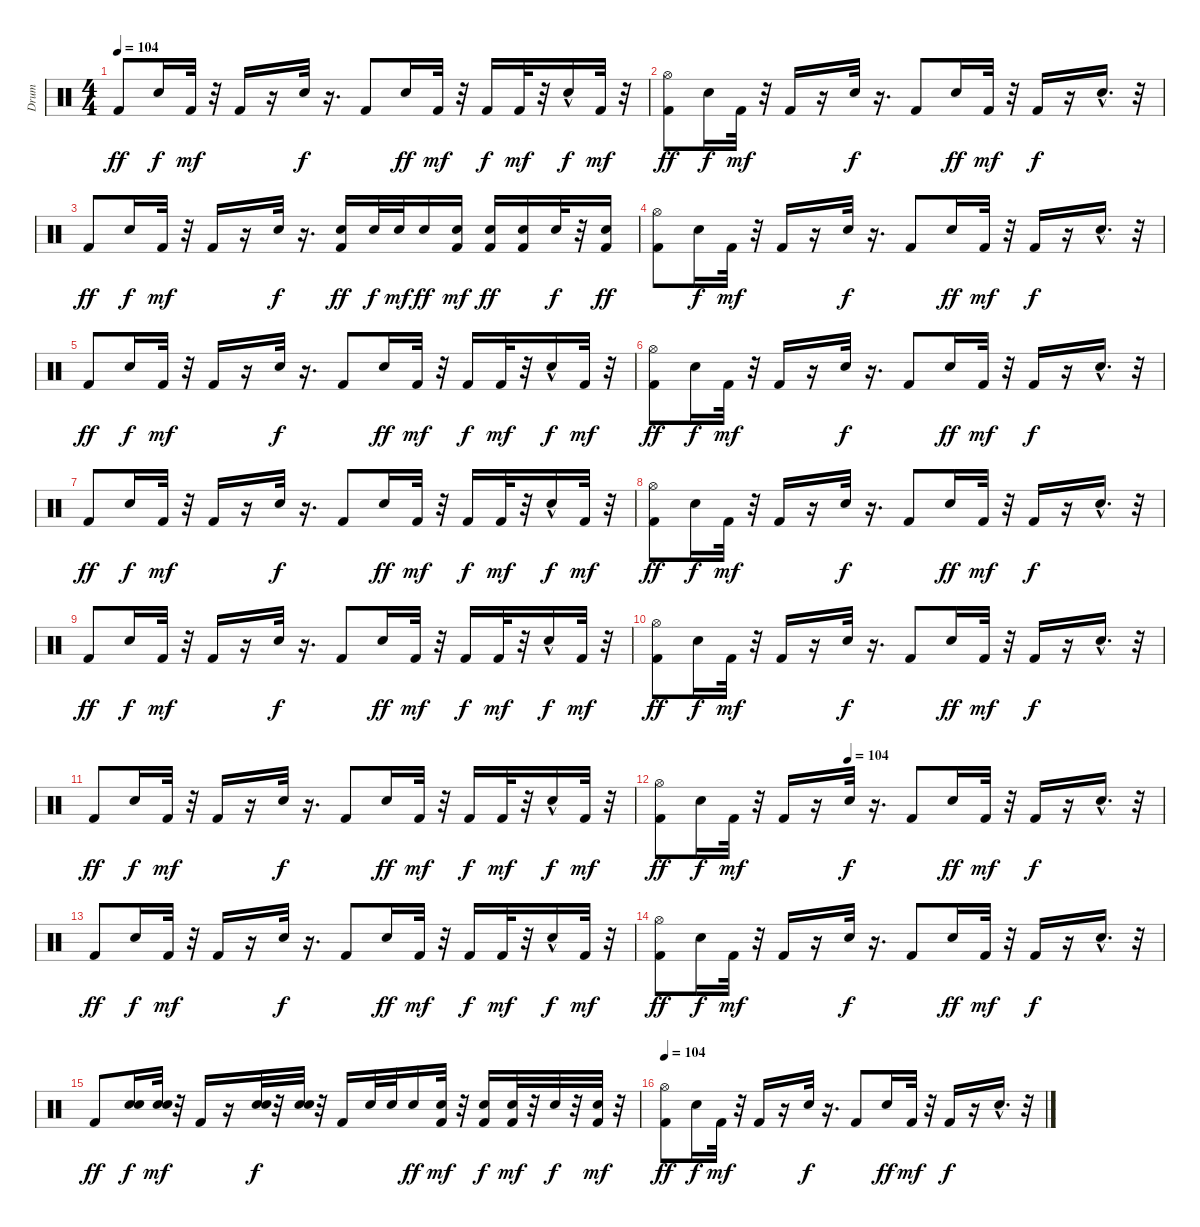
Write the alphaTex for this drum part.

\track ("Drum" "Drum") {instrument percussion}
\staff {score}
\articulation defaults
\ts (4 4)
\tempo 104
\clef neutral
\ks c "Kick (hit) 2".8{dy ff} "Electric Snare (hit)".16{dy f} "Kick (hit) 2".32{dy mf}
r.32 "Kick (hit) 2".16 r.16 "Electric Snare (hit)".32{dy f} r.16{d} "Kick (hit) 2".8 "Electric Snare (hit)".16{dy ff} "Kick (hit) 2".32{dy mf} r.32 "Kick (hit) 2".16{dy f} "Kick (hit) 2".32{dy mf} r.32 "Electric Snare (hit)"{hac}.16{dy f} "Kick (hit) 2".32{dy mf} r.32 |
("Hi-Hat (open)" "Kick (hit) 2").8{dy ff} "Electric Snare (hit)".16{dy f} "Kick (hit) 2".32{dy mf} r.32 "Kick (hit) 2".16 r.16 "Electric Snare (hit)".32{dy f} r.16{d} "Kick (hit) 2".8 "Electric Snare (hit)".16{dy ff} "Kick (hit) 2".32{dy mf} r.32 "Kick (hit) 2".16{dy f} r.16 "Electric Snare (hit)"{hac}.16{d} r.32 |
"Kick (hit) 2".8{dy ff} "Electric Snare (hit)".16{dy f} "Kick (hit) 2".32{dy mf} r.32 "Kick (hit) 2".16 r.16 "Electric Snare (hit)".32{dy f} r.16{d} ("Electric Snare (hit)" "Kick (hit) 2").16{dy ff} "Electric Snare (hit)".32{dy f} "Electric Snare (hit)".32{dy mf} "Electric Snare (hit)".16{dy ff} ("Electric Snare (hit)" "Kick (hit) 2").16{dy mf} ("Snare (hit) 2" "Kick (hit) 2").16{dy ff} ("Kick (hit) 2" "Snare (hit) 2").16 "Electric Snare (hit)".32{dy f} r.32 ("Kick (hit) 2" "Electric Snare (hit)").16{dy ff} |
("Hi-Hat (open)" "Kick (hit) 2").8 "Electric Snare (hit)".16{dy f} "Kick (hit) 2".32{dy mf} r.32 "Kick (hit) 2".16 r.16 "Electric Snare (hit)".32{dy f} r.16{d} "Kick (hit) 2".8 "Electric Snare (hit)".16{dy ff} "Kick (hit) 2".32{dy mf} r.32 "Kick (hit) 2".16{dy f} r.16 "Electric Snare (hit)"{hac}.16{d} r.32 |
"Kick (hit) 2".8{dy ff} "Electric Snare (hit)".16{dy f} "Kick (hit) 2".32{dy mf} r.32 "Kick (hit) 2".16 r.16 "Electric Snare (hit)".32{dy f} r.16{d} "Kick (hit) 2".8 "Electric Snare (hit)".16{dy ff} "Kick (hit) 2".32{dy mf} r.32 "Kick (hit) 2".16{dy f} "Kick (hit) 2".32{dy mf} r.32 "Electric Snare (hit)"{hac}.16{dy f} "Kick (hit) 2".32{dy mf} r.32 |
("Hi-Hat (open)" "Kick (hit) 2").8{dy ff} "Electric Snare (hit)".16{dy f} "Kick (hit) 2".32{dy mf} r.32 "Kick (hit) 2".16 r.16 "Electric Snare (hit)".32{dy f} r.16{d} "Kick (hit) 2".8 "Electric Snare (hit)".16{dy ff} "Kick (hit) 2".32{dy mf} r.32 "Kick (hit) 2".16{dy f} r.16 "Electric Snare (hit)"{hac}.16{d} r.32 |
"Kick (hit) 2".8{dy ff} "Electric Snare (hit)".16{dy f} "Kick (hit) 2".32{dy mf} r.32 "Kick (hit) 2".16 r.16 "Electric Snare (hit)".32{dy f} r.16{d} "Kick (hit) 2".8 "Electric Snare (hit)".16{dy ff} "Kick (hit) 2".32{dy mf} r.32 "Kick (hit) 2".16{dy f} "Kick (hit) 2".32{dy mf} r.32 "Electric Snare (hit)"{hac}.16{dy f} "Kick (hit) 2".32{dy mf} r.32 |
("Hi-Hat (open)" "Kick (hit) 2").8{dy ff} "Electric Snare (hit)".16{dy f} "Kick (hit) 2".32{dy mf} r.32 "Kick (hit) 2".16 r.16 "Electric Snare (hit)".32{dy f} r.16{d} "Kick (hit) 2".8 "Electric Snare (hit)".16{dy ff} "Kick (hit) 2".32{dy mf} r.32 "Kick (hit) 2".16{dy f} r.16 "Electric Snare (hit)"{hac}.16{d} r.32 |
"Kick (hit) 2".8{dy ff} "Electric Snare (hit)".16{dy f} "Kick (hit) 2".32{dy mf} r.32 "Kick (hit) 2".16 r.16 "Electric Snare (hit)".32{dy f} r.16{d} "Kick (hit) 2".8 "Electric Snare (hit)".16{dy ff} "Kick (hit) 2".32{dy mf} r.32 "Kick (hit) 2".16{dy f} "Kick (hit) 2".32{dy mf} r.32 "Electric Snare (hit)"{hac}.16{dy f} "Kick (hit) 2".32{dy mf} r.32 |
("Hi-Hat (open)" "Kick (hit) 2").8{dy ff} "Electric Snare (hit)".16{dy f} "Kick (hit) 2".32{dy mf} r.32 "Kick (hit) 2".16 r.16 "Electric Snare (hit)".32{dy f} r.16{d} "Kick (hit) 2".8 "Electric Snare (hit)".16{dy ff} "Kick (hit) 2".32{dy mf} r.32 "Kick (hit) 2".16{dy f} r.16 "Electric Snare (hit)"{hac}.16{d} r.32 |
"Kick (hit) 2".8{dy ff} "Electric Snare (hit)".16{dy f} "Kick (hit) 2".32{dy mf} r.32 "Kick (hit) 2".16 r.16 "Electric Snare (hit)".32{dy f} r.16{d} "Kick (hit) 2".8 "Electric Snare (hit)".16{dy ff} "Kick (hit) 2".32{dy mf} r.32 "Kick (hit) 2".16{dy f} "Kick (hit) 2".32{dy mf} r.32 "Electric Snare (hit)"{hac}.16{dy f} "Kick (hit) 2".32{dy mf} r.32 |
\tempo (104 0.375)
("Hi-Hat (open)" "Kick (hit) 2").8{dy ff} "Electric Snare (hit)".16{dy f} "Kick (hit) 2".32{dy mf} r.32 "Kick (hit) 2".16 r.16 "Electric Snare (hit)".32{dy f} r.16{d} "Kick (hit) 2".8 "Electric Snare (hit)".16{dy ff} "Kick (hit) 2".32{dy mf} r.32 "Kick (hit) 2".16{dy f} r.16 "Electric Snare (hit)"{hac}.16{d} r.32 |
"Kick (hit) 2".8{dy ff} "Electric Snare (hit)".16{dy f} "Kick (hit) 2".32{dy mf} r.32 "Kick (hit) 2".16 r.16 "Electric Snare (hit)".32{dy f} r.16{d} "Kick (hit) 2".8 "Electric Snare (hit)".16{dy ff} "Kick (hit) 2".32{dy mf} r.32 "Kick (hit) 2".16{dy f} "Kick (hit) 2".32{dy mf} r.32 "Electric Snare (hit)"{hac}.16{dy f} "Kick (hit) 2".32{dy mf} r.32 |
("Hi-Hat (open)" "Kick (hit) 2").8{dy ff} "Electric Snare (hit)".16{dy f} "Kick (hit) 2".32{dy mf} r.32 "Kick (hit) 2".16 r.16 "Electric Snare (hit)".32{dy f} r.16{d} "Kick (hit) 2".8 "Electric Snare (hit)".16{dy ff} "Kick (hit) 2".32{dy mf} r.32 "Kick (hit) 2".16{dy f} r.16 "Electric Snare (hit)"{hac}.16{d} r.32 |
"Kick (hit) 2".8{dy ff} ("Snare (hit) 2" "Electric Snare (hit)").16{dy f} ("Snare (hit) 2" "Electric Snare (hit)").32{dy mf} r.32 "Kick (hit) 2".16 r.16 ("Snare (hit) 2" "Electric Snare (hit)").32{dy f} r.32 ("Snare (hit) 2" "Electric Snare (hit)").32 r.32 "Kick (hit) 2".16 "Snare (hit) 2".32 "Snare (hit) 2".32 "Electric Snare (hit)".16{dy ff} ("Snare (hit) 2" "Kick (hit) 2").32{dy mf} r.32 ("Snare (hit) 2" "Kick (hit) 2").16{dy f} ("Kick (hit) 2" "Snare (hit) 2").32{dy mf} r.32 "Electric Snare (hit)".32{dy f} r.32 ("Kick (hit) 2" "Electric Snare (hit)").32{dy mf} r.32 |
\tempo 104
("Hi-Hat (open)" "Kick (hit) 2").8{dy ff} "Electric Snare (hit)".16{dy f} "Kick (hit) 2".32{dy mf} r.32 "Kick (hit) 2".16 r.16 "Electric Snare (hit)".32{dy f} r.16{d} "Kick (hit) 2".8 "Electric Snare (hit)".16{dy ff} "Kick (hit) 2".32{dy mf} r.32 "Kick (hit) 2".16{dy f} r.16 "Electric Snare (hit)"{hac}.16{d} r.32
